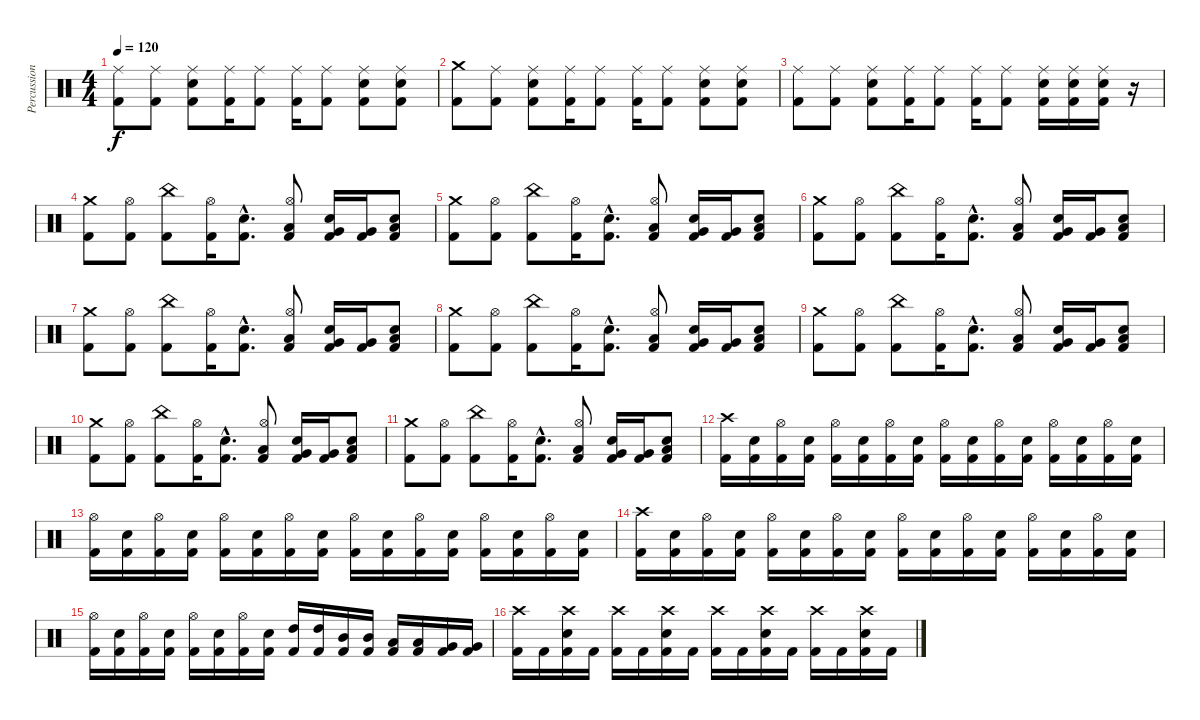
\track ("Percussion" "Percussion") {instrument percussion}
\staff {score}
\articulation defaults
\ts (4 4)
\tempo 120
\clef neutral
\ks c
("Ride (middle)" "Kick (hit) 2").8{dy f} ("Ride (middle)" "Kick (hit) 2").8 ("Ride (middle)" "Snare (hit) 2" "Kick (hit) 2").8 ("Ride (middle)" "Kick (hit) 2").16 ("Ride (middle)" "Kick (hit) 2").8 ("Ride (middle)" "Kick (hit) 2").16 ("Ride (middle)" "Kick (hit) 2").8 ("Ride (middle)" "Snare (hit) 2" "Kick (hit) 2").8 ("Ride (middle)" "Snare (hit) 2" "Kick (hit) 2").8 |
("Crash medium (hit)" "Kick (hit) 2").8 ("Ride (middle)" "Kick (hit) 2").8 ("Ride (middle)" "Snare (hit) 2" "Kick (hit) 2").8 ("Ride (middle)" "Kick (hit) 2").16 ("Ride (middle)" "Kick (hit) 2").8 ("Ride (middle)" "Kick (hit) 2").16 ("Ride (middle)" "Kick (hit) 2").8 ("Ride (middle)" "Snare (hit) 2" "Kick (hit) 2").8 ("Ride (middle)" "Snare (hit) 2" "Kick (hit) 2").8 |
("Ride (middle)" "Kick (hit) 2").8 ("Ride (middle)" "Kick (hit) 2").8 ("Ride (middle)" "Snare (hit) 2" "Kick (hit) 2").8 ("Ride (middle)" "Kick (hit) 2").16 ("Ride (middle)" "Kick (hit) 2").8 ("Ride (middle)" "Kick (hit) 2").16 ("Ride (middle)" "Kick (hit) 2").8 ("Ride (middle)" "Snare (hit) 2" "Kick (hit) 2").16 ("Ride (middle)" "Snare (hit) 2" "Kick (hit) 2").16 ("Ride (middle)" "Snare (hit) 2" "Kick (hit) 2").16 r.16 |
("Crash medium (hit)" "Kick (hit) 2").8 ("Hi-Hat (open)" "Kick (hit) 2").8 ("China (hit)" "Kick (hit) 2").8 ("Hi-Hat (open)" "Kick (hit) 2").16 ("Snare (hit) 2"{hac} "Kick (hit) 2"{hac}).8{d} ("Hi-Hat (open)" "Low Tom (hit)" "Kick (hit) 2").8 ("Very Low Tom (hit)" "Snare (hit) 2" "Kick (hit) 2").16 ("Very Low Tom (hit)" "Kick (hit) 2").16 ("Low Floor Tom (hit)" "Snare (hit) 2" "Kick (hit) 2").8 |
("Crash medium (hit)" "Kick (hit) 2").8 ("Hi-Hat (open)" "Kick (hit) 2").8 ("China (hit)" "Kick (hit) 2").8 ("Hi-Hat (open)" "Kick (hit) 2").16 ("Snare (hit) 2"{hac} "Kick (hit) 2"{hac}).8{d} ("Hi-Hat (open)" "Low Tom (hit)" "Kick (hit) 2").8 ("Very Low Tom (hit)" "Snare (hit) 2" "Kick (hit) 2").16 ("Very Low Tom (hit)" "Kick (hit) 2").16 ("Low Floor Tom (hit)" "Snare (hit) 2" "Kick (hit) 2").8 |
("Crash medium (hit)" "Kick (hit) 2").8 ("Hi-Hat (open)" "Kick (hit) 2").8 ("China (hit)" "Kick (hit) 2").8 ("Hi-Hat (open)" "Kick (hit) 2").16 ("Snare (hit) 2"{hac} "Kick (hit) 2"{hac}).8{d} ("Hi-Hat (open)" "Low Tom (hit)" "Kick (hit) 2").8 ("Very Low Tom (hit)" "Snare (hit) 2" "Kick (hit) 2").16 ("Very Low Tom (hit)" "Kick (hit) 2").16 ("Low Floor Tom (hit)" "Snare (hit) 2" "Kick (hit) 2").8 |
("Crash medium (hit)" "Kick (hit) 2").8 ("Hi-Hat (open)" "Kick (hit) 2").8 ("China (hit)" "Kick (hit) 2").8 ("Hi-Hat (open)" "Kick (hit) 2").16 ("Snare (hit) 2"{hac} "Kick (hit) 2"{hac}).8{d} ("Hi-Hat (open)" "Low Tom (hit)" "Kick (hit) 2").8 ("Very Low Tom (hit)" "Snare (hit) 2" "Kick (hit) 2").16 ("Very Low Tom (hit)" "Kick (hit) 2").16 ("Low Floor Tom (hit)" "Snare (hit) 2" "Kick (hit) 2").8 |
("Crash medium (hit)" "Kick (hit) 2").8 ("Hi-Hat (open)" "Kick (hit) 2").8 ("China (hit)" "Kick (hit) 2").8 ("Hi-Hat (open)" "Kick (hit) 2").16 ("Snare (hit) 2"{hac} "Kick (hit) 2"{hac}).8{d} ("Hi-Hat (open)" "Low Tom (hit)" "Kick (hit) 2").8 ("Very Low Tom (hit)" "Snare (hit) 2" "Kick (hit) 2").16 ("Very Low Tom (hit)" "Kick (hit) 2").16 ("Low Floor Tom (hit)" "Snare (hit) 2" "Kick (hit) 2").8 |
("Crash medium (hit)" "Kick (hit) 2").8 ("Hi-Hat (open)" "Kick (hit) 2").8 ("China (hit)" "Kick (hit) 2").8 ("Hi-Hat (open)" "Kick (hit) 2").16 ("Snare (hit) 2"{hac} "Kick (hit) 2"{hac}).8{d} ("Hi-Hat (open)" "Low Tom (hit)" "Kick (hit) 2").8 ("Very Low Tom (hit)" "Snare (hit) 2" "Kick (hit) 2").16 ("Very Low Tom (hit)" "Kick (hit) 2").16 ("Low Floor Tom (hit)" "Snare (hit) 2" "Kick (hit) 2").8 |
("Crash medium (hit)" "Kick (hit) 2").8 ("Hi-Hat (open)" "Kick (hit) 2").8 ("China (hit)" "Kick (hit) 2").8 ("Hi-Hat (open)" "Kick (hit) 2").16 ("Snare (hit) 2"{hac} "Kick (hit) 2"{hac}).8{d} ("Hi-Hat (open)" "Low Tom (hit)" "Kick (hit) 2").8 ("Very Low Tom (hit)" "Snare (hit) 2" "Kick (hit) 2").16 ("Very Low Tom (hit)" "Kick (hit) 2").16 ("Low Floor Tom (hit)" "Snare (hit) 2" "Kick (hit) 2").8 |
("Crash medium (hit)" "Kick (hit) 2").8 ("Hi-Hat (open)" "Kick (hit) 2").8 ("China (hit)" "Kick (hit) 2").8 ("Hi-Hat (open)" "Kick (hit) 2").16 ("Snare (hit) 2"{hac} "Kick (hit) 2"{hac}).8{d} ("Hi-Hat (open)" "Low Tom (hit)" "Kick (hit) 2").8 ("Very Low Tom (hit)" "Snare (hit) 2" "Kick (hit) 2").16 ("Very Low Tom (hit)" "Kick (hit) 2").16 ("Low Floor Tom (hit)" "Snare (hit) 2" "Kick (hit) 2").8 |
("Crash high (hit)" "Kick (hit) 2").16 ("Snare (hit) 2" "Kick (hit) 2").16 ("Hi-Hat (open)" "Kick (hit) 2").16 ("Snare (hit) 2" "Kick (hit) 2").16 ("Hi-Hat (open)" "Kick (hit) 2").16 ("Snare (hit) 2" "Kick (hit) 2").16 ("Hi-Hat (open)" "Kick (hit) 2").16 ("Snare (hit) 2" "Kick (hit) 2").16 ("Hi-Hat (open)" "Kick (hit) 2").16 ("Snare (hit) 2" "Kick (hit) 2").16 ("Hi-Hat (open)" "Kick (hit) 2").16 ("Snare (hit) 2" "Kick (hit) 2").16 ("Hi-Hat (open)" "Kick (hit) 2").16 ("Snare (hit) 2" "Kick (hit) 2").16 ("Hi-Hat (open)" "Kick (hit) 2").16 ("Snare (hit) 2" "Kick (hit) 2").16 |
("Hi-Hat (open)" "Kick (hit) 2").16 ("Snare (hit) 2" "Kick (hit) 2").16 ("Hi-Hat (open)" "Kick (hit) 2").16 ("Snare (hit) 2" "Kick (hit) 2").16 ("Hi-Hat (open)" "Kick (hit) 2").16 ("Snare (hit) 2" "Kick (hit) 2").16 ("Hi-Hat (open)" "Kick (hit) 2").16 ("Snare (hit) 2" "Kick (hit) 2").16 ("Hi-Hat (open)" "Kick (hit) 2").16 ("Snare (hit) 2" "Kick (hit) 2").16 ("Hi-Hat (open)" "Kick (hit) 2").16 ("Snare (hit) 2" "Kick (hit) 2").16 ("Hi-Hat (open)" "Kick (hit) 2").16 ("Snare (hit) 2" "Kick (hit) 2").16 ("Hi-Hat (open)" "Kick (hit) 2").16 ("Snare (hit) 2" "Kick (hit) 2").16 |
("Crash high (hit)" "Kick (hit) 2").16 ("Snare (hit) 2" "Kick (hit) 2").16 ("Hi-Hat (open)" "Kick (hit) 2").16 ("Snare (hit) 2" "Kick (hit) 2").16 ("Hi-Hat (open)" "Kick (hit) 2").16 ("Snare (hit) 2" "Kick (hit) 2").16 ("Hi-Hat (open)" "Kick (hit) 2").16 ("Snare (hit) 2" "Kick (hit) 2").16 ("Hi-Hat (open)" "Kick (hit) 2").16 ("Snare (hit) 2" "Kick (hit) 2").16 ("Hi-Hat (open)" "Kick (hit) 2").16 ("Snare (hit) 2" "Kick (hit) 2").16 ("Hi-Hat (open)" "Kick (hit) 2").16 ("Snare (hit) 2" "Kick (hit) 2").16 ("Hi-Hat (open)" "Kick (hit) 2").16 ("Snare (hit) 2" "Kick (hit) 2").16 |
("Hi-Hat (open)" "Kick (hit) 2").16 ("Snare (hit) 2" "Kick (hit) 2").16 ("Hi-Hat (open)" "Kick (hit) 2").16 ("Snare (hit) 2" "Kick (hit) 2").16 ("Hi-Hat (open)" "Kick (hit) 2").16 ("Snare (hit) 2" "Kick (hit) 2").16 ("Hi-Hat (open)" "Kick (hit) 2").16 ("Snare (hit) 2" "Kick (hit) 2").16 ("High Tom (hit)" "Kick (hit) 2").16 ("High Tom (hit)" "Kick (hit) 2").16 ("Mid Tom (hit)" "Kick (hit) 2").16 ("Mid Tom (hit)" "Kick (hit) 2").16 ("Low Tom (hit)" "Kick (hit) 2").16 ("Low Tom (hit)" "Kick (hit) 2").16 ("Very Low Tom (hit)" "Kick (hit) 2").16 ("Very Low Tom (hit)" "Kick (hit) 2").16 |
("Crash high (hit)" "Kick (hit) 2").16 "Kick (hit) 2".16 ("Crash high (hit)" "Snare (hit) 2" "Kick (hit) 2").16 "Kick (hit) 2".16 ("Crash high (hit)" "Kick (hit) 2").16 "Kick (hit) 2".16 ("Crash high (hit)" "Snare (hit) 2" "Kick (hit) 2").16 "Kick (hit) 2".16 ("Crash high (hit)" "Kick (hit) 2").16 "Kick (hit) 2".16 ("Crash high (hit)" "Snare (hit) 2" "Kick (hit) 2").16 "Kick (hit) 2".16 ("Crash high (hit)" "Kick (hit) 2").16 "Kick (hit) 2".16 ("Crash high (hit)" "Snare (hit) 2" "Kick (hit) 2").16 "Kick (hit) 2".16
